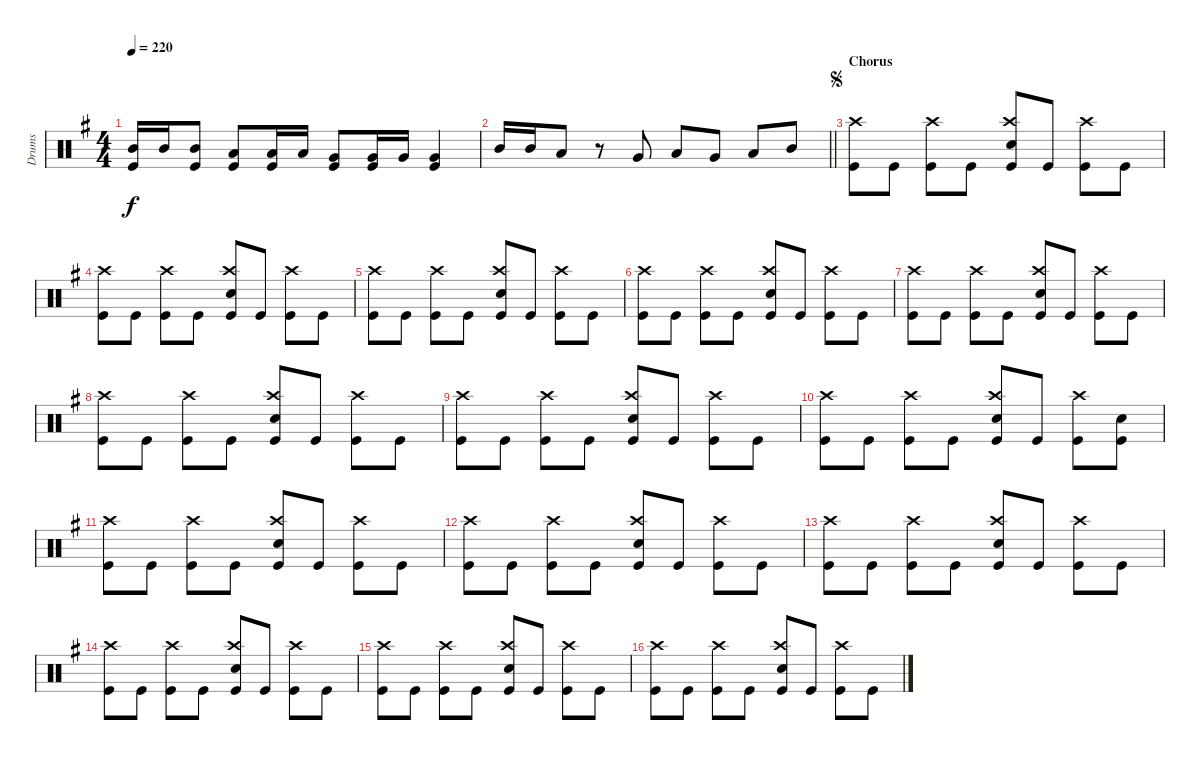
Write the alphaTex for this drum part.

\track ("Drums" "Drums") {instrument percussion}
\staff {score}
\articulation defaults
\ts (4 4)
\tempo 220
\clef neutral
\ks eminor
("Mid Tom (hit)" "Kick (hit)").16{dy f} "Mid Tom (hit)".16 ("Mid Tom (hit)" "Kick (hit)").8 ("Low Tom (hit)" "Kick (hit)").8 ("Low Tom (hit)" "Kick (hit)").16 "Low Tom (hit)".16 ("Kick (hit)" "Very Low Tom (hit)").8 ("Very Low Tom (hit)" "Kick (hit)").16 "Very Low Tom (hit)".16 ("Very Low Tom (hit)" "Kick (hit)").4 |
\barLineRight lightlight "Mid Tom (hit)".16 "Mid Tom (hit)".16 "Low Tom (hit)".8
r.8 "Very Low Tom (hit)".8 "Low Floor Tom (hit)".8 "Very Low Tom (hit)".8 "Low Tom (hit)".8 "Mid Tom (hit)".8 |
\section ("" "Chorus")
\jump segno
("Kick (hit)" "Crash high (hit)").8 "Kick (hit)".8 ("Kick (hit)" "Crash high (hit)").8 "Kick (hit)".8 ("Kick (hit)" "Snare (hit) 2" "Crash high (hit)").8 "Kick (hit)".8 ("Kick (hit)" "Crash high (hit)").8 "Kick (hit)".8 |
("Kick (hit)" "Crash high (hit)").8 "Kick (hit)".8 ("Kick (hit)" "Crash high (hit)").8 "Kick (hit)".8 ("Kick (hit)" "Snare (hit) 2" "Crash high (hit)").8 "Kick (hit)".8 ("Kick (hit)" "Crash high (hit)").8 "Kick (hit)".8 |
("Kick (hit)" "Crash high (hit)").8 "Kick (hit)".8 ("Kick (hit)" "Crash high (hit)").8 "Kick (hit)".8 ("Kick (hit)" "Snare (hit) 2" "Crash high (hit)").8 "Kick (hit)".8 ("Kick (hit)" "Crash high (hit)").8 "Kick (hit)".8 |
("Kick (hit)" "Crash high (hit)").8 "Kick (hit)".8 ("Kick (hit)" "Crash high (hit)").8 "Kick (hit)".8 ("Kick (hit)" "Snare (hit) 2" "Crash high (hit)").8 "Kick (hit)".8 ("Kick (hit)" "Crash high (hit)").8 "Kick (hit)".8 |
("Kick (hit)" "Crash high (hit)").8 "Kick (hit)".8 ("Kick (hit)" "Crash high (hit)").8 "Kick (hit)".8 ("Kick (hit)" "Snare (hit) 2" "Crash high (hit)").8 "Kick (hit)".8 ("Kick (hit)" "Crash high (hit)").8 "Kick (hit)".8 |
("Kick (hit)" "Crash high (hit)").8 "Kick (hit)".8 ("Kick (hit)" "Crash high (hit)").8 "Kick (hit)".8 ("Kick (hit)" "Snare (hit) 2" "Crash high (hit)").8 "Kick (hit)".8 ("Kick (hit)" "Crash high (hit)").8 "Kick (hit)".8 |
("Kick (hit)" "Crash high (hit)").8 "Kick (hit)".8 ("Kick (hit)" "Crash high (hit)").8 "Kick (hit)".8 ("Kick (hit)" "Snare (hit) 2" "Crash high (hit)").8 "Kick (hit)".8 ("Kick (hit)" "Crash high (hit)").8 "Kick (hit)".8 |
("Kick (hit)" "Crash high (hit)").8 "Kick (hit)".8 ("Kick (hit)" "Crash high (hit)").8 "Kick (hit)".8 ("Kick (hit)" "Snare (hit) 2" "Crash high (hit)").8 "Kick (hit)".8 ("Kick (hit)" "Crash high (hit)").8 ("Kick (hit)" "Snare (hit) 2").8 |
("Kick (hit)" "Crash high (hit)").8 "Kick (hit)".8 ("Kick (hit)" "Crash high (hit)").8 "Kick (hit)".8 ("Kick (hit)" "Snare (hit) 2" "Crash high (hit)").8 "Kick (hit)".8 ("Kick (hit)" "Crash high (hit)").8 "Kick (hit)".8 |
("Kick (hit)" "Crash high (hit)").8 "Kick (hit)".8 ("Kick (hit)" "Crash high (hit)").8 "Kick (hit)".8 ("Kick (hit)" "Snare (hit) 2" "Crash high (hit)").8 "Kick (hit)".8 ("Kick (hit)" "Crash high (hit)").8 "Kick (hit)".8 |
("Kick (hit)" "Crash high (hit)").8 "Kick (hit)".8 ("Kick (hit)" "Crash high (hit)").8 "Kick (hit)".8 ("Kick (hit)" "Snare (hit) 2" "Crash high (hit)").8 "Kick (hit)".8 ("Kick (hit)" "Crash high (hit)").8 "Kick (hit)".8 |
("Kick (hit)" "Crash high (hit)").8 "Kick (hit)".8 ("Kick (hit)" "Crash high (hit)").8 "Kick (hit)".8 ("Kick (hit)" "Snare (hit) 2" "Crash high (hit)").8 "Kick (hit)".8 ("Kick (hit)" "Crash high (hit)").8 "Kick (hit)".8 |
("Kick (hit)" "Crash high (hit)").8 "Kick (hit)".8 ("Kick (hit)" "Crash high (hit)").8 "Kick (hit)".8 ("Kick (hit)" "Snare (hit) 2" "Crash high (hit)").8 "Kick (hit)".8 ("Kick (hit)" "Crash high (hit)").8 "Kick (hit)".8 |
("Kick (hit)" "Crash high (hit)").8 "Kick (hit)".8 ("Kick (hit)" "Crash high (hit)").8 "Kick (hit)".8 ("Kick (hit)" "Snare (hit) 2" "Crash high (hit)").8 "Kick (hit)".8 ("Kick (hit)" "Crash high (hit)").8 "Kick (hit)".8
